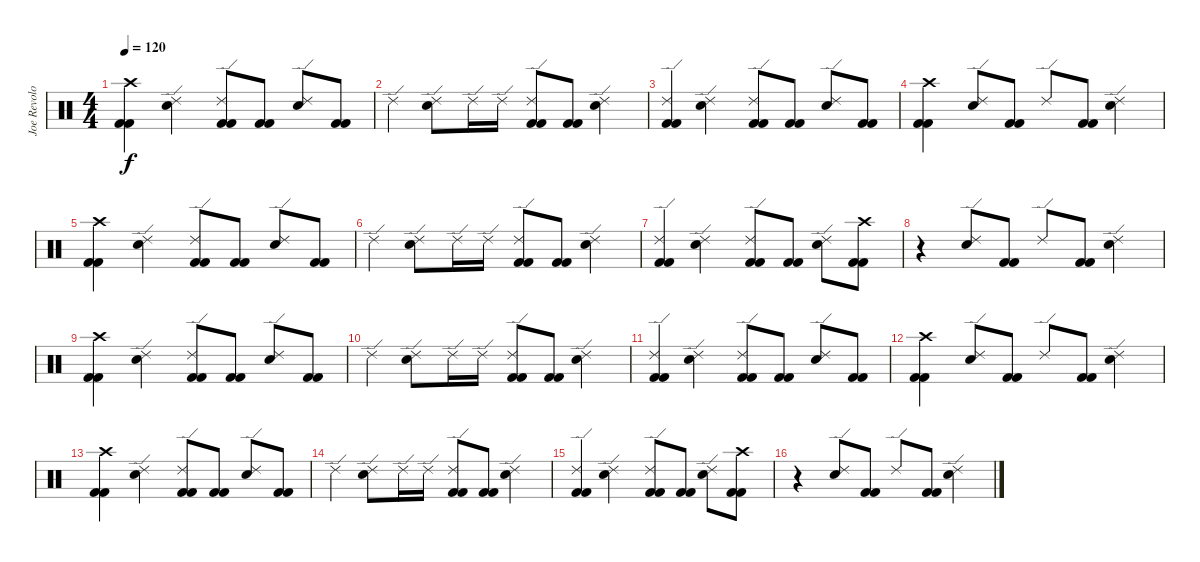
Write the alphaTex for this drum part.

\track ("Joe Revolo" "Joe Revolo") {instrument percussion}
\staff {score}
\articulation defaults
\ts (4 4)
\tempo 120
\clef neutral
\ks c
("Crash high (hit)" "Kick (hit) 2" "Kick (hit) 2").4{dy f} ("Ride (edge) 2" "Electric Snare (hit)").4 ("Ride (edge) 2" "Kick (hit) 2" "Kick (hit) 2").8 ("Kick (hit) 2" "Kick (hit) 2").8 ("Ride (edge) 2" "Electric Snare (hit)").8 ("Kick (hit) 2" "Kick (hit) 2").8 |
"Ride (edge) 2".4 ("Ride (edge) 2" "Electric Snare (hit)").8 "Ride (edge) 2".16 "Ride (edge) 2".16 ("Ride (edge) 2" "Kick (hit) 2" "Kick (hit) 2").8 ("Kick (hit) 2" "Kick (hit) 2").8 ("Ride (edge) 2" "Electric Snare (hit)").4 |
("Ride (edge) 2" "Kick (hit) 2" "Kick (hit) 2").4 ("Ride (edge) 2" "Electric Snare (hit)").4 ("Ride (edge) 2" "Kick (hit) 2" "Kick (hit) 2").8 ("Kick (hit) 2" "Kick (hit) 2").8 ("Ride (edge) 2" "Electric Snare (hit)").8 ("Kick (hit) 2" "Kick (hit) 2").8 |
("Crash high (hit)" "Kick (hit) 2" "Kick (hit) 2").4 ("Ride (edge) 2" "Electric Snare (hit)").8 ("Kick (hit) 2" "Kick (hit) 2").8 "Ride (edge) 2".8 ("Kick (hit) 2" "Kick (hit) 2").8 ("Ride (edge) 2" "Electric Snare (hit)").4 |
("Crash high (hit)" "Kick (hit) 2" "Kick (hit) 2").4 ("Ride (edge) 2" "Electric Snare (hit)").4 ("Ride (edge) 2" "Kick (hit) 2" "Kick (hit) 2").8 ("Kick (hit) 2" "Kick (hit) 2").8 ("Ride (edge) 2" "Electric Snare (hit)").8 ("Kick (hit) 2" "Kick (hit) 2").8 |
"Ride (edge) 2".4 ("Ride (edge) 2" "Electric Snare (hit)").8 "Ride (edge) 2".16 "Ride (edge) 2".16 ("Ride (edge) 2" "Kick (hit) 2" "Kick (hit) 2").8 ("Kick (hit) 2" "Kick (hit) 2").8 ("Ride (edge) 2" "Electric Snare (hit)").4 |
("Ride (edge) 2" "Kick (hit) 2" "Kick (hit) 2").4 ("Ride (edge) 2" "Electric Snare (hit)").4 ("Ride (edge) 2" "Kick (hit) 2" "Kick (hit) 2").8 ("Kick (hit) 2" "Kick (hit) 2").8 ("Ride (edge) 2" "Electric Snare (hit)").8 ("Crash high (hit)" "Kick (hit) 2" "Kick (hit) 2").8 |
r.4 ("Ride (edge) 2" "Electric Snare (hit)").8 ("Kick (hit) 2" "Kick (hit) 2").8 "Ride (edge) 2".8 ("Kick (hit) 2" "Kick (hit) 2").8 ("Ride (edge) 2" "Electric Snare (hit)").4 |
("Crash high (hit)" "Kick (hit) 2" "Kick (hit) 2").4 ("Ride (edge) 2" "Electric Snare (hit)").4 ("Ride (edge) 2" "Kick (hit) 2" "Kick (hit) 2").8 ("Kick (hit) 2" "Kick (hit) 2").8 ("Ride (edge) 2" "Electric Snare (hit)").8 ("Kick (hit) 2" "Kick (hit) 2").8 |
"Ride (edge) 2".4 ("Ride (edge) 2" "Electric Snare (hit)").8 "Ride (edge) 2".16 "Ride (edge) 2".16 ("Ride (edge) 2" "Kick (hit) 2" "Kick (hit) 2").8 ("Kick (hit) 2" "Kick (hit) 2").8 ("Ride (edge) 2" "Electric Snare (hit)").4 |
("Ride (edge) 2" "Kick (hit) 2" "Kick (hit) 2").4 ("Ride (edge) 2" "Electric Snare (hit)").4 ("Ride (edge) 2" "Kick (hit) 2" "Kick (hit) 2").8 ("Kick (hit) 2" "Kick (hit) 2").8 ("Ride (edge) 2" "Electric Snare (hit)").8 ("Kick (hit) 2" "Kick (hit) 2").8 |
("Crash high (hit)" "Kick (hit) 2" "Kick (hit) 2").4 ("Ride (edge) 2" "Electric Snare (hit)").8 ("Kick (hit) 2" "Kick (hit) 2").8 "Ride (edge) 2".8 ("Kick (hit) 2" "Kick (hit) 2").8 ("Ride (edge) 2" "Electric Snare (hit)").4 |
("Crash high (hit)" "Kick (hit) 2" "Kick (hit) 2").4 ("Ride (edge) 2" "Electric Snare (hit)").4 ("Ride (edge) 2" "Kick (hit) 2" "Kick (hit) 2").8 ("Kick (hit) 2" "Kick (hit) 2").8 ("Ride (edge) 2" "Electric Snare (hit)").8 ("Kick (hit) 2" "Kick (hit) 2").8 |
"Ride (edge) 2".4 ("Ride (edge) 2" "Electric Snare (hit)").8 "Ride (edge) 2".16 "Ride (edge) 2".16 ("Ride (edge) 2" "Kick (hit) 2" "Kick (hit) 2").8 ("Kick (hit) 2" "Kick (hit) 2").8 ("Ride (edge) 2" "Electric Snare (hit)").4 |
("Ride (edge) 2" "Kick (hit) 2" "Kick (hit) 2").4 ("Ride (edge) 2" "Electric Snare (hit)").4 ("Ride (edge) 2" "Kick (hit) 2" "Kick (hit) 2").8 ("Kick (hit) 2" "Kick (hit) 2").8 ("Ride (edge) 2" "Electric Snare (hit)").8 ("Crash high (hit)" "Kick (hit) 2" "Kick (hit) 2").8 |
r.4 ("Ride (edge) 2" "Electric Snare (hit)").8 ("Kick (hit) 2" "Kick (hit) 2").8 "Ride (edge) 2".8 ("Kick (hit) 2" "Kick (hit) 2").8 ("Ride (edge) 2" "Electric Snare (hit)").4
